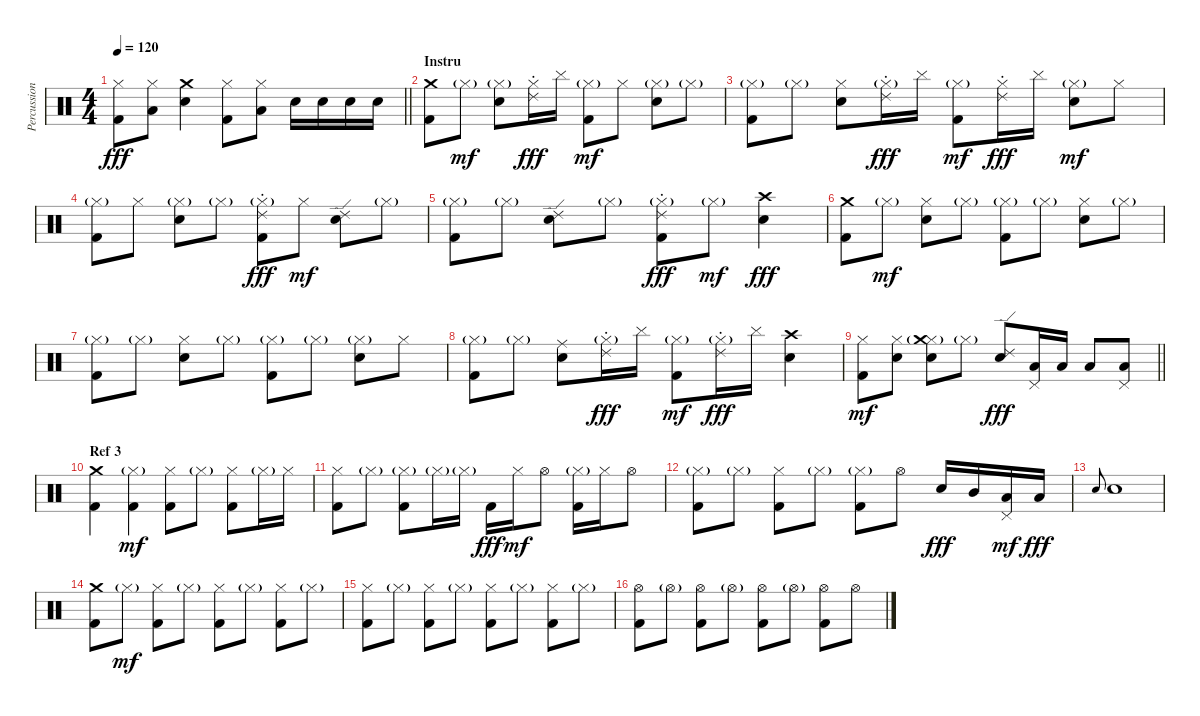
\track ("Percussions" "Percussion") {instrument percussion}
\staff {score}
\articulation defaults
\ts (4 4)
\tempo 120
\clef neutral
\barLineRight lightlight
\ks c
("Kick (hit) 2" "Hi-Hat (closed)").8{dy fff} ("Low Tom (hit)" "Hi-Hat (closed)").8 ("Electric Snare (hit)" "Crash medium (hit)").4 ("Kick (hit) 2" "Hi-Hat (closed)").8 ("Low Tom (hit)" "Hi-Hat (closed)").8 "Electric Snare (hit)".16 "Electric Snare (hit)".16 "Electric Snare (hit)".16 "Electric Snare (hit)".16 |
\section ("" "Instru")
("Kick (hit) 2" "Crash medium (hit)").8 "Hi-Hat (closed)"{g}.8{dy mf} ("Electric Snare (hit)" "Hi-Hat (closed)"{g}).8 ("Hi-Hat (closed)" "Ride (choke) 2").16{dy fff} "Cymbal (hit)".16 ("Kick (hit) 2" "Hi-Hat (closed)"{g}).8{dy mf} "Hi-Hat (closed)".8 ("Electric Snare (hit)" "Hi-Hat (closed)"{g}).8 "Hi-Hat (closed)"{g}.8 |
("Kick (hit) 2" "Hi-Hat (closed)"{g}).8 "Hi-Hat (closed)"{g}.8 ("Electric Snare (hit)" "Hi-Hat (closed)").8 ("Hi-Hat (closed)"{g} "Ride (choke) 2").16{dy fff} "Cymbal (hit)".16 ("Kick (hit) 2" "Hi-Hat (closed)"{g}).8{dy mf} ("Hi-Hat (closed)" "Ride (choke) 2").16{dy fff} "Cymbal (hit)".16 ("Electric Snare (hit)" "Hi-Hat (closed)"{g}).8{dy mf} "Hi-Hat (closed)".8 |
("Kick (hit) 2" "Hi-Hat (closed)"{g}).8 "Hi-Hat (closed)".8 ("Electric Snare (hit)" "Hi-Hat (closed)"{g}).8 "Hi-Hat (closed)"{g}.8 ("Kick (hit) 2" "Hi-Hat (closed)"{g} "Ride (choke) 2").8{dy fff} "Hi-Hat (closed)".8{dy mf} ("Electric Snare (hit)" "Ride (edge) 2").8 "Hi-Hat (closed)"{g}.8 |
("Kick (hit) 2" "Hi-Hat (closed)"{g}).8 "Hi-Hat (closed)"{g}.8 ("Electric Snare (hit)" "Ride (edge) 2").8 "Hi-Hat (closed)"{g}.8 ("Kick (hit) 2" "Hi-Hat (closed)"{g} "Ride (choke) 2").8{dy fff} "Hi-Hat (closed)"{g}.8{dy mf} ("Electric Snare (hit)" "Crash high (hit)").4{dy fff} |
("Kick (hit) 2" "Crash medium (hit)").8 "Hi-Hat (closed)"{g}.8{dy mf} ("Electric Snare (hit)" "Hi-Hat (closed)").8 "Hi-Hat (closed)"{g}.8 ("Kick (hit) 2" "Hi-Hat (closed)"{g}).8 "Hi-Hat (closed)"{g}.8 ("Electric Snare (hit)" "Hi-Hat (closed)").8 "Hi-Hat (closed)"{g}.8 |
("Kick (hit) 2" "Hi-Hat (closed)"{g}).8 "Hi-Hat (closed)"{g}.8 ("Electric Snare (hit)" "Hi-Hat (closed)").8 "Hi-Hat (closed)"{g}.8 ("Kick (hit) 2" "Hi-Hat (closed)"{g}).8 "Hi-Hat (closed)"{g}.8 ("Electric Snare (hit)" "Hi-Hat (closed)"{g}).8 "Hi-Hat (closed)".8 |
("Kick (hit) 2" "Hi-Hat (closed)"{g}).8 "Hi-Hat (closed)"{g}.8 ("Electric Snare (hit)" "Ride (middle)").8 ("Hi-Hat (closed)"{g} "Ride (choke) 2").16{dy fff} "Cymbal (hit)".16 ("Kick (hit) 2" "Hi-Hat (closed)"{g}).8{dy mf} ("Hi-Hat (closed)"{g} "Ride (choke) 2").16{dy fff} "Cymbal (hit)".16 ("Electric Snare (hit)" "Crash high (hit)").4 |
\barLineRight lightlight
("Kick (hit) 2" "Hi-Hat (closed)").8{dy mf} ("Electric Snare (hit)" "Hi-Hat (closed)").8 ("Electric Snare (hit)" "Hi-Hat (closed)"{g} "Crash medium (hit)").8 "Hi-Hat (closed)"{g}.8 ("Electric Snare (hit)" "Ride (edge) 2").8{dy fff} ("Low Tom (hit)" "Pedal Hi-Hat (hit)").16 "Low Tom (hit)".16 "Low Tom (hit)".8 ("Low Tom (hit)" "Pedal Hi-Hat (hit)").8 |
\section ("" "Ref 3")
("Kick (hit) 2" "Crash medium (hit)").4 ("Kick (hit) 2" "Hi-Hat (closed)"{g}).4{dy mf} ("Kick (hit) 2" "Hi-Hat (closed)").8 "Hi-Hat (closed)"{g}.8 ("Kick (hit) 2" "Hi-Hat (closed)").8 "Hi-Hat (closed)"{g}.16 "Hi-Hat (closed)".16 |
("Kick (hit) 2" "Hi-Hat (closed)").8 "Hi-Hat (closed)"{g}.8 ("Kick (hit) 2" "Hi-Hat (closed)"{g}).8 "Hi-Hat (closed)"{g}.16 "Hi-Hat (closed)"{g}.16 "Kick (hit) 2".16{dy fff} "Hi-Hat (closed)".16{dy mf} "Hi-Hat (open)".8 ("Kick (hit) 2" "Hi-Hat (closed)"{g}).16 "Hi-Hat (closed)".16 "Hi-Hat (open)".8 |
("Kick (hit) 2" "Hi-Hat (closed)"{g}).8 "Hi-Hat (closed)"{g}.8 ("Kick (hit) 2" "Hi-Hat (closed)").8 "Hi-Hat (closed)"{g}.8 ("Kick (hit) 2" "Hi-Hat (closed)"{g}).8 "Hi-Hat (open)".8 "Electric Snare (hit)".16{dy fff} "Mid Tom (hit)".16 ("Low Tom (hit)" "Pedal Hi-Hat (hit)").16{dy mf} "Low Tom (hit)".16{dy fff} |
"Electric Snare (hit)".8{gr onbeat} "Electric Snare (hit)".1 |
("Kick (hit) 2" "Crash medium (hit)").8 "Hi-Hat (closed)"{g}.8{dy mf} ("Kick (hit) 2" "Hi-Hat (closed)").8 "Hi-Hat (closed)"{g}.8 ("Kick (hit) 2" "Hi-Hat (closed)").8 "Hi-Hat (closed)"{g}.8 ("Kick (hit) 2" "Hi-Hat (closed)").8 "Hi-Hat (closed)"{g}.8 |
("Kick (hit) 2" "Hi-Hat (closed)").8 "Hi-Hat (closed)"{g}.8 ("Kick (hit) 2" "Hi-Hat (closed)").8 "Hi-Hat (closed)"{g}.8 ("Kick (hit) 2" "Hi-Hat (closed)").8 "Hi-Hat (closed)"{g}.8 ("Kick (hit) 2" "Hi-Hat (closed)").8 "Hi-Hat (closed)"{g}.8 |
("Kick (hit) 2" "Hi-Hat (open)").8 "Hi-Hat (open)"{g}.8 ("Kick (hit) 2" "Hi-Hat (open)").8 "Hi-Hat (open)"{g}.8 ("Kick (hit) 2" "Hi-Hat (open)").8 "Hi-Hat (open)"{g}.8 ("Kick (hit) 2" "Hi-Hat (open)").8 "Hi-Hat (open)".8
